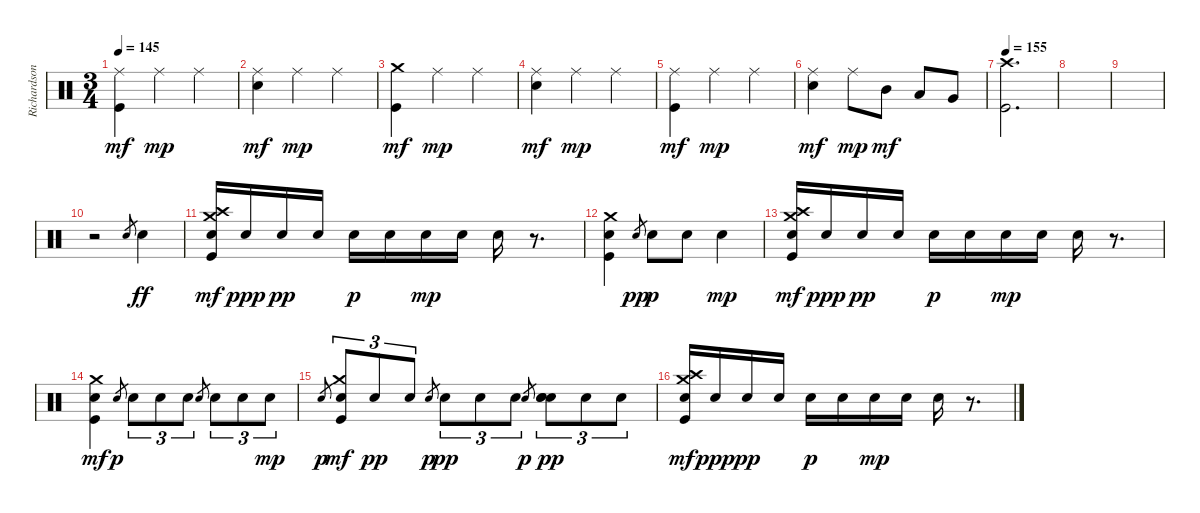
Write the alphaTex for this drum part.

\track ("Richardson" "Richardson") {instrument percussion}
\staff {score}
\articulation defaults
\ts (3 4)
\tempo 145
\clef neutral
\ks c
("Ride (middle)" "Kick (hit)").4{dy mf} "Ride (middle)".4{dy mp} "Ride (middle)".4 |
("Ride (middle)" "Electric Snare (hit)").4{dy mf} "Ride (middle)".4{dy mp} "Ride (middle)".4 |
("Crash medium (hit)" "Kick (hit)").4{dy mf} "Ride (middle)".4{dy mp} "Ride (middle)".4 |
("Ride (middle)" "Electric Snare (hit)").4{dy mf} "Ride (middle)".4{dy mp} "Ride (middle)".4 |
("Ride (middle)" "Kick (hit)").4{dy mf} "Ride (middle)".4{dy mp} "Ride (middle)".4 |
("Ride (middle)" "Electric Snare (hit)").4{dy mf} "Ride (middle)".8{dy mp} "Mid Tom (hit)".8{dy mf} "Low Tom (hit)".8 "Very Low Tom (hit)".8 |
\tempo 155
("Crash high (hit)" "Kick (hit)").2{d} |
|
|
r.2 "Electric Snare (hit)".8{gr} "Electric Snare (hit)".4{dy ff} |
("Crash medium (hit)" "Crash high (hit)" "Snare (hit) 2" "Kick (hit)").16{dy mf volume 16} "Snare (hit) 2".16{dy ppp} "Snare (hit) 2".16{dy pp} "Snare (hit) 2".16 "Snare (hit) 2".16{dy p} "Snare (hit) 2".16 "Snare (hit) 2".16{dy mp} "Snare (hit) 2".16 "Snare (hit) 2".16 r.8{d} |
("Crash medium (hit)" "Electric Snare (hit)" "Kick (hit)").4 "Snare (hit) 2".8{gr dy pp} "Snare (hit) 2".8{dy p} "Snare (hit) 2".8 "Snare (hit) 2".4{dy mp} |
("Crash medium (hit)" "Crash high (hit)" "Snare (hit) 2" "Kick (hit)").16{dy mf} "Snare (hit) 2".16{dy ppp} "Snare (hit) 2".16{dy pp} "Snare (hit) 2".16 "Snare (hit) 2".16{dy p} "Snare (hit) 2".16 "Snare (hit) 2".16{dy mp} "Snare (hit) 2".16 "Snare (hit) 2".16 r.8{d} |
("Crash medium (hit)" "Electric Snare (hit)" "Kick (hit)").4{dy mf} "Snare (hit) 2".8{gr dy p} "Snare (hit) 2".8{tu (3 2)} "Snare (hit) 2".8{tu (3 2)} "Snare (hit) 2".8{tu (3 2)} "Snare (hit) 2".8{gr} "Snare (hit) 2".8{tu (3 2)} "Snare (hit) 2".8{tu (3 2)} "Snare (hit) 2".8{tu (3 2) dy mp} |
"Snare (hit) 2".8{gr dy p} ("Crash medium (hit)" "Snare (hit) 2" "Kick (hit)").8{tu (3 2) dy mf} "Snare (hit) 2".8{tu (3 2) dy pp} "Snare (hit) 2".8{tu (3 2)} "Snare (hit) 2".8{gr dy p} "Snare (hit) 2".8{tu (3 2) dy pp} "Snare (hit) 2".8{tu (3 2)} "Snare (hit) 2".8{tu (3 2)} "Snare (hit) 2".8{gr dy p} ("Electric Snare (hit)" "Electric Snare (hit)" "Snare (hit) 2").8{tu (3 2) dy pp} "Snare (hit) 2".8{tu (3 2)} "Snare (hit) 2".8{tu (3 2)} |
("Crash medium (hit)" "Crash high (hit)" "Snare (hit) 2" "Kick (hit)").16{dy mf} "Snare (hit) 2".16{dy ppp} "Snare (hit) 2".16{dy pp} "Snare (hit) 2".16 "Snare (hit) 2".16{dy p} "Snare (hit) 2".16 "Snare (hit) 2".16{dy mp} "Snare (hit) 2".16 "Snare (hit) 2".16 r.8{d}
